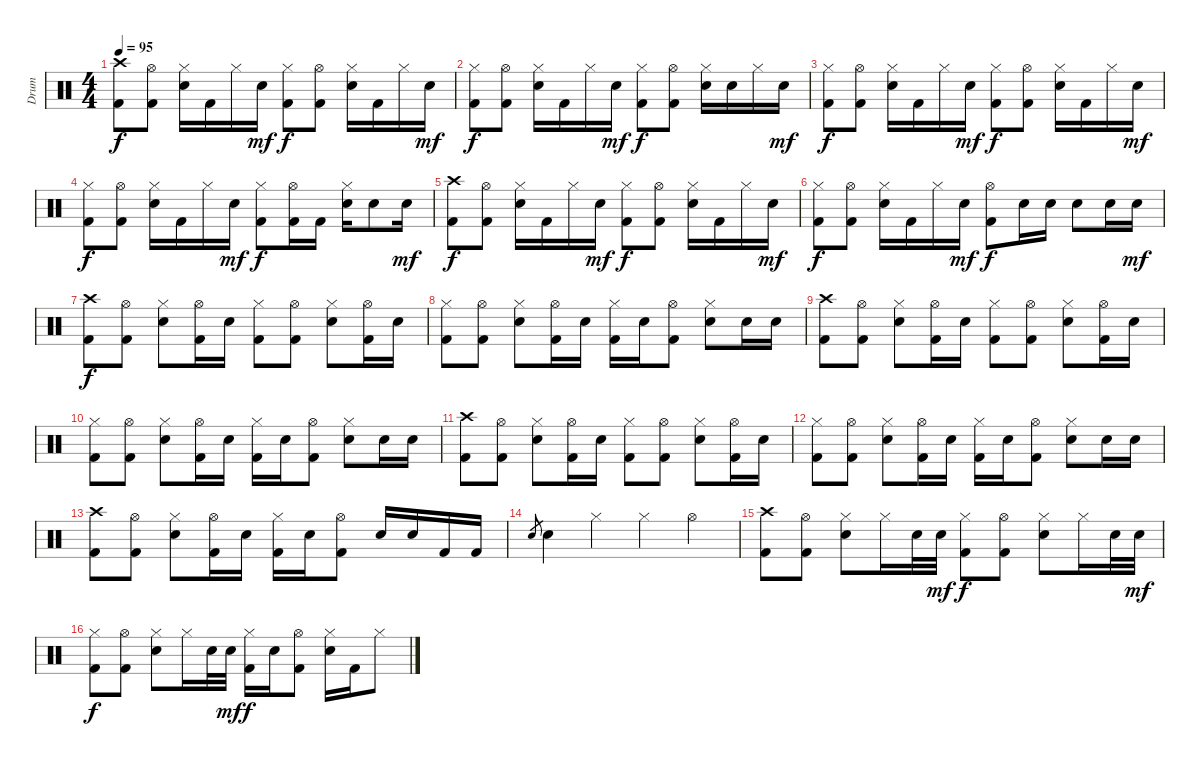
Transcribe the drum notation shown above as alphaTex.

\track ("Drum" "Drum") {instrument percussion}
\staff {score}
\articulation defaults
\ts (4 4)
\tempo 95
\clef neutral
\ks c
("Crash high (hit)" "Kick (hit) 2").8{dy f} ("Hi-Hat (open)" "Kick (hit) 2").8 ("Hi-Hat (closed)" "Electric Snare (hit)").16 "Kick (hit) 2".16 "Hi-Hat (closed)".16 "Electric Snare (hit)".16{dy mf} ("Hi-Hat (closed)" "Kick (hit) 2").8{dy f} ("Hi-Hat (open)" "Kick (hit) 2").8 ("Hi-Hat (closed)" "Electric Snare (hit)").16 "Kick (hit) 2".16 "Hi-Hat (closed)".16 "Electric Snare (hit)".16{dy mf} |
("Hi-Hat (closed)" "Kick (hit) 2").8{dy f} ("Hi-Hat (open)" "Kick (hit) 2").8 ("Hi-Hat (closed)" "Electric Snare (hit)").16 "Kick (hit) 2".16 "Hi-Hat (closed)".16 "Electric Snare (hit)".16{dy mf} ("Hi-Hat (closed)" "Kick (hit) 2").8{dy f} ("Hi-Hat (open)" "Kick (hit) 2").8 ("Hi-Hat (closed)" "Electric Snare (hit)").16 "Electric Snare (hit)".16 "Hi-Hat (closed)".16 "Electric Snare (hit)".16{dy mf} |
("Hi-Hat (closed)" "Kick (hit) 2").8{dy f} ("Hi-Hat (open)" "Kick (hit) 2").8 ("Hi-Hat (closed)" "Electric Snare (hit)").16 "Kick (hit) 2".16 "Hi-Hat (closed)".16 "Electric Snare (hit)".16{dy mf} ("Hi-Hat (closed)" "Kick (hit) 2").8{dy f} ("Hi-Hat (open)" "Kick (hit) 2").8 ("Hi-Hat (closed)" "Electric Snare (hit)").16 "Kick (hit) 2".16 "Hi-Hat (closed)".16 "Electric Snare (hit)".16{dy mf} |
("Hi-Hat (closed)" "Kick (hit) 2").8{dy f} ("Hi-Hat (open)" "Kick (hit) 2").8 ("Hi-Hat (closed)" "Electric Snare (hit)").16 "Kick (hit) 2".16 "Hi-Hat (closed)".16 "Electric Snare (hit)".16{dy mf} ("Hi-Hat (closed)" "Kick (hit) 2").8{dy f} ("Hi-Hat (open)" "Kick (hit) 2").16 "Kick (hit) 2".16 ("Hi-Hat (closed)" "Electric Snare (hit)").16 "Electric Snare (hit)".8 "Electric Snare (hit)".16{dy mf} |
("Crash high (hit)" "Kick (hit) 2").8{dy f} ("Hi-Hat (open)" "Kick (hit) 2").8 ("Hi-Hat (closed)" "Electric Snare (hit)").16 "Kick (hit) 2".16 "Hi-Hat (closed)".16 "Electric Snare (hit)".16{dy mf} ("Hi-Hat (closed)" "Kick (hit) 2").8{dy f} ("Hi-Hat (open)" "Kick (hit) 2").8 ("Hi-Hat (closed)" "Electric Snare (hit)").16 "Kick (hit) 2".16 "Hi-Hat (closed)".16 "Electric Snare (hit)".16{dy mf} |
("Hi-Hat (closed)" "Kick (hit) 2").8{dy f} ("Hi-Hat (open)" "Kick (hit) 2").8 ("Hi-Hat (closed)" "Electric Snare (hit)").16 "Kick (hit) 2".16 "Hi-Hat (closed)".16 "Electric Snare (hit)".16{dy mf} ("Hi-Hat (open)" "Kick (hit) 2").8{dy f} "Electric Snare (hit)".16 "Electric Snare (hit)".16 "Electric Snare (hit)".8 "Electric Snare (hit)".16 "Electric Snare (hit)".16{dy mf} |
("Crash high (hit)" "Kick (hit) 2").8{dy f} ("Hi-Hat (open)" "Kick (hit) 2").8 ("Hi-Hat (closed)" "Electric Snare (hit)").8 ("Hi-Hat (open)" "Kick (hit) 2").16 "Electric Snare (hit)".16 ("Hi-Hat (closed)" "Kick (hit) 2").8 ("Hi-Hat (open)" "Kick (hit) 2").8 ("Hi-Hat (closed)" "Electric Snare (hit)").8 ("Hi-Hat (open)" "Kick (hit) 2").16 "Electric Snare (hit)".16 |
("Hi-Hat (closed)" "Kick (hit) 2").8 ("Hi-Hat (open)" "Kick (hit) 2").8 ("Hi-Hat (closed)" "Electric Snare (hit)").8 ("Hi-Hat (open)" "Kick (hit) 2").16 "Electric Snare (hit)".16 ("Hi-Hat (closed)" "Kick (hit) 2").16 "Electric Snare (hit)".16 ("Hi-Hat (open)" "Kick (hit) 2").8 ("Hi-Hat (closed)" "Electric Snare (hit)").8 "Electric Snare (hit)".16 "Electric Snare (hit)".16 |
("Crash high (hit)" "Kick (hit) 2").8 ("Hi-Hat (open)" "Kick (hit) 2").8 ("Hi-Hat (closed)" "Electric Snare (hit)").8 ("Hi-Hat (open)" "Kick (hit) 2").16 "Electric Snare (hit)".16 ("Hi-Hat (closed)" "Kick (hit) 2").8 ("Hi-Hat (open)" "Kick (hit) 2").8 ("Hi-Hat (closed)" "Electric Snare (hit)").8 ("Hi-Hat (open)" "Kick (hit) 2").16 "Electric Snare (hit)".16 |
("Hi-Hat (closed)" "Kick (hit) 2").8 ("Hi-Hat (open)" "Kick (hit) 2").8 ("Hi-Hat (closed)" "Electric Snare (hit)").8 ("Hi-Hat (open)" "Kick (hit) 2").16 "Electric Snare (hit)".16 ("Hi-Hat (closed)" "Kick (hit) 2").16 "Electric Snare (hit)".16 ("Hi-Hat (open)" "Kick (hit) 2").8 ("Hi-Hat (closed)" "Electric Snare (hit)").8 "Electric Snare (hit)".16 "Electric Snare (hit)".16 |
("Crash high (hit)" "Kick (hit) 2").8 ("Hi-Hat (open)" "Kick (hit) 2").8 ("Hi-Hat (closed)" "Electric Snare (hit)").8 ("Hi-Hat (open)" "Kick (hit) 2").16 "Electric Snare (hit)".16 ("Hi-Hat (closed)" "Kick (hit) 2").8 ("Hi-Hat (open)" "Kick (hit) 2").8 ("Hi-Hat (closed)" "Electric Snare (hit)").8 ("Hi-Hat (open)" "Kick (hit) 2").16 "Electric Snare (hit)".16 |
("Hi-Hat (closed)" "Kick (hit) 2").8 ("Hi-Hat (open)" "Kick (hit) 2").8 ("Hi-Hat (closed)" "Electric Snare (hit)").8 ("Hi-Hat (open)" "Kick (hit) 2").16 "Electric Snare (hit)".16 ("Hi-Hat (closed)" "Kick (hit) 2").16 "Electric Snare (hit)".16 ("Hi-Hat (open)" "Kick (hit) 2").8 ("Hi-Hat (closed)" "Electric Snare (hit)").8 "Electric Snare (hit)".16 "Electric Snare (hit)".16 |
("Crash high (hit)" "Kick (hit) 2").8 ("Hi-Hat (open)" "Kick (hit) 2").8 ("Hi-Hat (closed)" "Electric Snare (hit)").8 ("Hi-Hat (open)" "Kick (hit) 2").16 "Electric Snare (hit)".16 ("Hi-Hat (closed)" "Kick (hit) 2").16 "Electric Snare (hit)".16 ("Hi-Hat (open)" "Kick (hit) 2").8 "Electric Snare (hit)".16 "Electric Snare (hit)".16 "Kick (hit) 2".16 "Kick (hit) 2".16 |
"Electric Snare (hit)".8{gr} "Electric Snare (hit)".4 "Hi-Hat (closed)".4 "Hi-Hat (closed)".4 "Hi-Hat (open)".4 |
("Crash high (hit)" "Kick (hit) 2").8 ("Hi-Hat (open)" "Kick (hit) 2").8 ("Hi-Hat (closed)" "Electric Snare (hit)").8 "Hi-Hat (closed)".16 "Electric Snare (hit)".32 "Electric Snare (hit)".32{dy mf} ("Hi-Hat (closed)" "Kick (hit) 2").8{dy f} ("Hi-Hat (open)" "Kick (hit) 2").8 ("Hi-Hat (closed)" "Electric Snare (hit)").8 "Hi-Hat (closed)".16 "Electric Snare (hit)".32 "Electric Snare (hit)".32{dy mf} |
("Hi-Hat (closed)" "Kick (hit) 2").8{dy f} ("Hi-Hat (open)" "Kick (hit) 2").8 ("Hi-Hat (closed)" "Electric Snare (hit)").8 "Hi-Hat (closed)".16 "Electric Snare (hit)".32 "Electric Snare (hit)".32{dy mf} ("Hi-Hat (closed)" "Kick (hit) 2").16{dy f} "Electric Snare (hit)".16 ("Hi-Hat (open)" "Kick (hit) 2").8 ("Hi-Hat (closed)" "Electric Snare (hit)").16 "Kick (hit) 2".16 "Hi-Hat (closed)".8
